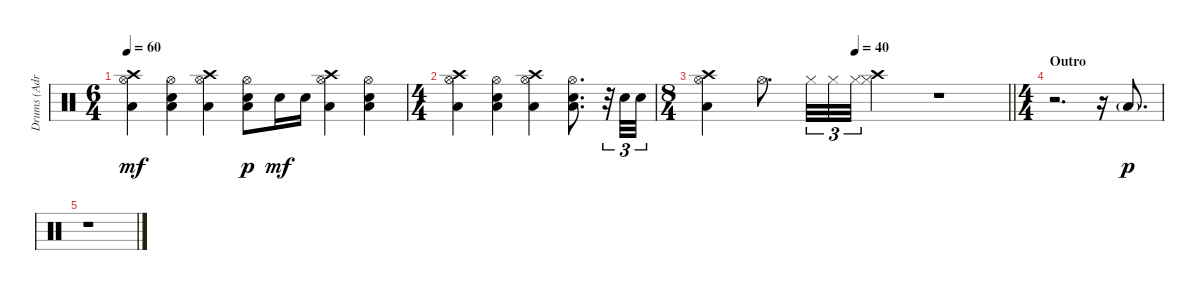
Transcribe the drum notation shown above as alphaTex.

\track ("Drums (Adrian Macintosh)" "Drums (Adr") {instrument percussion}
\staff {score}
\articulation defaults
\ts (6 4)
\tempo 60
\clef neutral
\ks aminor
("Hi-Hat (open)" "Low Floor Tom (hit)" "Crash high (hit)").4{dy mf} ("Hi-Hat (open)" "Low Floor Tom (hit)" "Snare (hit) 2").4 ("Hi-Hat (open)" "Low Floor Tom (hit)" "Crash high (hit)").4 ("Hi-Hat (open)" "Low Floor Tom (hit)" "Snare (hit) 2").8{dy p} "Snare (hit) 2".16{dy mf} "Snare (hit) 2".16 ("Hi-Hat (open)" "Low Floor Tom (hit)" "Crash high (hit)").4 ("Hi-Hat (open)" "Low Floor Tom (hit)" "Snare (hit) 2").4 |
\ts (4 4)
("Hi-Hat (open)" "Low Floor Tom (hit)" "Crash high (hit)").4 ("Hi-Hat (open)" "Low Floor Tom (hit)" "Snare (hit) 2").4 ("Hi-Hat (open)" "Low Floor Tom (hit)" "Crash high (hit)").4 ("Hi-Hat (open)" "Low Floor Tom (hit)" "Snare (hit) 2").8{d} r.32{tu (3 2)} "Snare (hit) 2".32{tu (3 2)} "Snare (hit) 2".32{tu (3 2)} |
\ts (8 4)
\tempo (40 0.5)
\barLineRight lightlight
("Hi-Hat (open)" "Low Floor Tom (hit)" "Crash high (hit)").4 "Hi-Hat (open)".8{d} "Hi-Hat (closed)".32{tu (3 2)} "Hi-Hat (closed)".32{tu (3 2)} "Hi-Hat (closed)".32{tu (3 2)} ("Hi-Hat (closed)" "Crash high (hit)").2 r.1 |
\ts (4 4)
\section ("" "Outro")
r.2{d} r.16 "Low Floor Tom (hit)"{g}.8{d dy p} |
r.1
